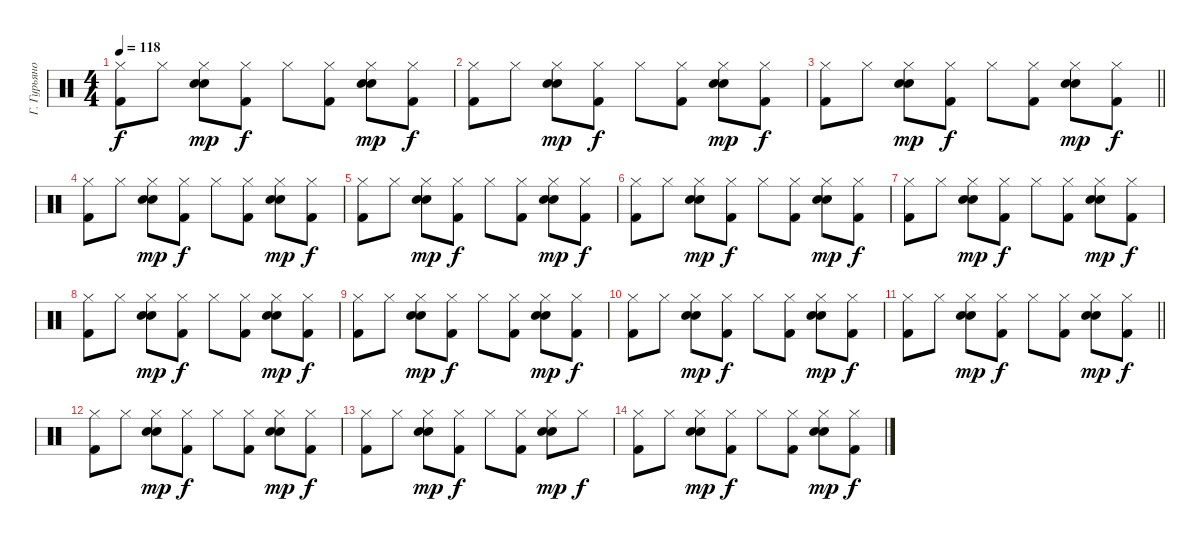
\track ("Г. Гурьянов" "Г. Гурьяно") {instrument percussion}
\staff
\articulation defaults
\ts (4 4)
\tempo 118
\clef neutral
\ks c
("Hi-Hat (closed)" "Kick (hit) 2").8{dy f} "Hi-Hat (closed)".8 ("Hi-Hat (closed)" "Electric Snare (hit)" "Snare (hit) 2").8{dy mp} ("Hi-Hat (closed)" "Kick (hit) 2").8{dy f} "Hi-Hat (closed)".8 ("Hi-Hat (closed)" "Kick (hit) 2").8 ("Hi-Hat (closed)" "Electric Snare (hit)" "Snare (hit) 2").8{dy mp} ("Hi-Hat (closed)" "Kick (hit) 2").8{dy f} |
("Hi-Hat (closed)" "Kick (hit) 2").8 "Hi-Hat (closed)".8 ("Hi-Hat (closed)" "Electric Snare (hit)" "Snare (hit) 2").8{dy mp} ("Hi-Hat (closed)" "Kick (hit) 2").8{dy f} "Hi-Hat (closed)".8 ("Hi-Hat (closed)" "Kick (hit) 2").8 ("Hi-Hat (closed)" "Electric Snare (hit)" "Snare (hit) 2").8{dy mp} ("Hi-Hat (closed)" "Kick (hit) 2").8{dy f} |
\barLineRight lightlight
("Hi-Hat (closed)" "Kick (hit) 2").8 "Hi-Hat (closed)".8 ("Hi-Hat (closed)" "Electric Snare (hit)" "Snare (hit) 2").8{dy mp} ("Hi-Hat (closed)" "Kick (hit) 2").8{dy f} "Hi-Hat (closed)".8 ("Hi-Hat (closed)" "Kick (hit) 2").8 ("Hi-Hat (closed)" "Electric Snare (hit)" "Snare (hit) 2").8{dy mp} ("Hi-Hat (closed)" "Kick (hit) 2").8{dy f} |
("Hi-Hat (closed)" "Kick (hit) 2").8 "Hi-Hat (closed)".8 ("Hi-Hat (closed)" "Electric Snare (hit)" "Snare (hit) 2").8{dy mp} ("Hi-Hat (closed)" "Kick (hit) 2").8{dy f} "Hi-Hat (closed)".8 ("Hi-Hat (closed)" "Kick (hit) 2").8 ("Hi-Hat (closed)" "Electric Snare (hit)" "Snare (hit) 2").8{dy mp} ("Hi-Hat (closed)" "Kick (hit) 2").8{dy f} |
("Hi-Hat (closed)" "Kick (hit) 2").8 "Hi-Hat (closed)".8 ("Hi-Hat (closed)" "Electric Snare (hit)" "Snare (hit) 2").8{dy mp} ("Hi-Hat (closed)" "Kick (hit) 2").8{dy f} "Hi-Hat (closed)".8 ("Hi-Hat (closed)" "Kick (hit) 2").8 ("Hi-Hat (closed)" "Electric Snare (hit)" "Snare (hit) 2").8{dy mp} ("Hi-Hat (closed)" "Kick (hit) 2").8{dy f} |
("Hi-Hat (closed)" "Kick (hit) 2").8 "Hi-Hat (closed)".8 ("Hi-Hat (closed)" "Electric Snare (hit)" "Snare (hit) 2").8{dy mp} ("Hi-Hat (closed)" "Kick (hit) 2").8{dy f} "Hi-Hat (closed)".8 ("Hi-Hat (closed)" "Kick (hit) 2").8 ("Hi-Hat (closed)" "Electric Snare (hit)" "Snare (hit) 2").8{dy mp} ("Hi-Hat (closed)" "Kick (hit) 2").8{dy f} |
("Hi-Hat (closed)" "Kick (hit) 2").8 "Hi-Hat (closed)".8 ("Hi-Hat (closed)" "Electric Snare (hit)" "Snare (hit) 2").8{dy mp} ("Hi-Hat (closed)" "Kick (hit) 2").8{dy f} "Hi-Hat (closed)".8 ("Hi-Hat (closed)" "Kick (hit) 2").8 ("Hi-Hat (closed)" "Electric Snare (hit)" "Snare (hit) 2").8{dy mp} ("Hi-Hat (closed)" "Kick (hit) 2").8{dy f} |
("Hi-Hat (closed)" "Kick (hit) 2").8 "Hi-Hat (closed)".8 ("Hi-Hat (closed)" "Electric Snare (hit)" "Snare (hit) 2").8{dy mp} ("Hi-Hat (closed)" "Kick (hit) 2").8{dy f} "Hi-Hat (closed)".8 ("Hi-Hat (closed)" "Kick (hit) 2").8 ("Hi-Hat (closed)" "Electric Snare (hit)" "Snare (hit) 2").8{dy mp} ("Hi-Hat (closed)" "Kick (hit) 2").8{dy f} |
("Hi-Hat (closed)" "Kick (hit) 2").8 "Hi-Hat (closed)".8 ("Hi-Hat (closed)" "Electric Snare (hit)" "Snare (hit) 2").8{dy mp} ("Hi-Hat (closed)" "Kick (hit) 2").8{dy f} "Hi-Hat (closed)".8 ("Hi-Hat (closed)" "Kick (hit) 2").8 ("Hi-Hat (closed)" "Electric Snare (hit)" "Snare (hit) 2").8{dy mp} ("Hi-Hat (closed)" "Kick (hit) 2").8{dy f} |
("Hi-Hat (closed)" "Kick (hit) 2").8 "Hi-Hat (closed)".8 ("Hi-Hat (closed)" "Electric Snare (hit)" "Snare (hit) 2").8{dy mp} ("Hi-Hat (closed)" "Kick (hit) 2").8{dy f} "Hi-Hat (closed)".8 ("Hi-Hat (closed)" "Kick (hit) 2").8 ("Hi-Hat (closed)" "Electric Snare (hit)" "Snare (hit) 2").8{dy mp} ("Hi-Hat (closed)" "Kick (hit) 2").8{dy f} |
\barLineRight lightlight
("Hi-Hat (closed)" "Kick (hit) 2").8 "Hi-Hat (closed)".8 ("Hi-Hat (closed)" "Electric Snare (hit)" "Snare (hit) 2").8{dy mp} ("Hi-Hat (closed)" "Kick (hit) 2").8{dy f} "Hi-Hat (closed)".8 ("Hi-Hat (closed)" "Kick (hit) 2").8 ("Hi-Hat (closed)" "Electric Snare (hit)" "Snare (hit) 2").8{dy mp} ("Hi-Hat (closed)" "Kick (hit) 2").8{dy f} |
("Hi-Hat (closed)" "Kick (hit) 2").8 "Hi-Hat (closed)".8 ("Hi-Hat (closed)" "Electric Snare (hit)" "Snare (hit) 2").8{dy mp} ("Hi-Hat (closed)" "Kick (hit) 2").8{dy f} "Hi-Hat (closed)".8 ("Hi-Hat (closed)" "Kick (hit) 2").8 ("Hi-Hat (closed)" "Electric Snare (hit)" "Snare (hit) 2").8{dy mp} ("Hi-Hat (closed)" "Kick (hit) 2").8{dy f} |
("Hi-Hat (closed)" "Kick (hit) 2").8 "Hi-Hat (closed)".8 ("Hi-Hat (closed)" "Electric Snare (hit)" "Snare (hit) 2").8{dy mp} ("Hi-Hat (closed)" "Kick (hit) 2").8{dy f} "Hi-Hat (closed)".8 ("Hi-Hat (closed)" "Kick (hit) 2").8 ("Hi-Hat (closed)" "Electric Snare (hit)" "Snare (hit) 2").8{dy mp} "Hi-Hat (closed)".8{dy f} |
("Hi-Hat (closed)" "Kick (hit) 2").8 "Hi-Hat (closed)".8 ("Hi-Hat (closed)" "Electric Snare (hit)" "Snare (hit) 2").8{dy mp} ("Hi-Hat (closed)" "Kick (hit) 2").8{dy f} "Hi-Hat (closed)".8 ("Hi-Hat (closed)" "Kick (hit) 2").8 ("Hi-Hat (closed)" "Electric Snare (hit)" "Snare (hit) 2").8{dy mp} ("Hi-Hat (closed)" "Kick (hit) 2").8{dy f}
